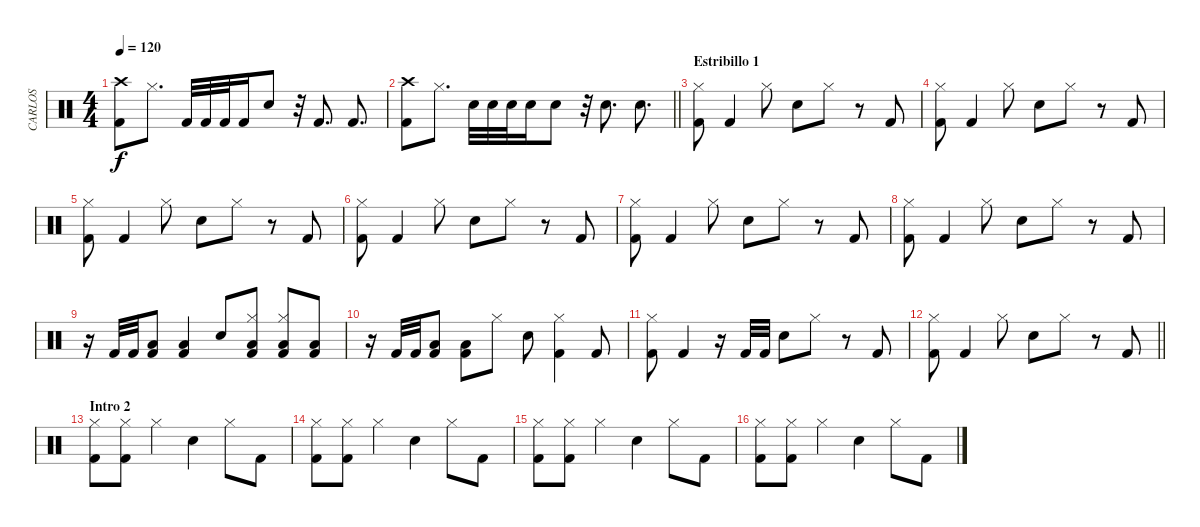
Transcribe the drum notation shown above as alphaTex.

\track ("CARLOS" "CARLOS") {instrument percussion}
\staff {score}
\articulation defaults
\ts (4 4)
\tempo 120
\clef neutral
\ks c
("Kick (hit) 2" "Crash high (hit)").8{dy f} "Hi-Hat (closed)".8{d} "Kick (hit) 2".32 "Kick (hit) 2".32 "Kick (hit) 2".32 "Kick (hit) 2".16 "Electric Snare (hit)".8 r.32 "Kick (hit) 2".8{d} "Kick (hit) 2".8{d} |
\barLineRight lightlight
("Kick (hit) 2" "Crash high (hit)").8 "Hi-Hat (closed)".8{d} "Electric Snare (hit)".32 "Electric Snare (hit)".32 "Electric Snare (hit)".32 "Electric Snare (hit)".16 "Electric Snare (hit)".8 r.32 "Electric Snare (hit)".8{d} "Electric Snare (hit)".8{d} |
\section ("" "Estribillo 1")
("Hi-Hat (closed)" "Kick (hit) 2").8 "Kick (hit) 2".4 "Hi-Hat (closed)".8 "Electric Snare (hit)".8 "Hi-Hat (closed)".8 r.8 "Kick (hit) 2".8 |
("Hi-Hat (closed)" "Kick (hit) 2").8 "Kick (hit) 2".4 "Hi-Hat (closed)".8 "Electric Snare (hit)".8 "Hi-Hat (closed)".8 r.8 "Kick (hit) 2".8 |
("Hi-Hat (closed)" "Kick (hit) 2").8 "Kick (hit) 2".4 "Hi-Hat (closed)".8 "Electric Snare (hit)".8 "Hi-Hat (closed)".8 r.8 "Kick (hit) 2".8 |
("Hi-Hat (closed)" "Kick (hit) 2").8 "Kick (hit) 2".4 "Hi-Hat (closed)".8 "Electric Snare (hit)".8 "Hi-Hat (closed)".8 r.8 "Kick (hit) 2".8 |
("Hi-Hat (closed)" "Kick (hit) 2").8 "Kick (hit) 2".4 "Hi-Hat (closed)".8 "Electric Snare (hit)".8 "Hi-Hat (closed)".8 r.8 "Kick (hit) 2".8 |
("Hi-Hat (closed)" "Kick (hit) 2").8 "Kick (hit) 2".4 "Hi-Hat (closed)".8 "Electric Snare (hit)".8 "Hi-Hat (closed)".8 r.8 "Kick (hit) 2".8 |
r.16 "Kick (hit) 2".32 "Kick (hit) 2".32 ("Low Tom (hit)" "Kick (hit) 2").8 ("Low Tom (hit)" "Kick (hit) 2").4 "Electric Snare (hit)".8 ("Hi-Hat (closed)" "Low Tom (hit)" "Kick (hit) 2").8 ("Hi-Hat (closed)" "Low Tom (hit)" "Kick (hit) 2").8 ("Low Tom (hit)" "Kick (hit) 2").8 |
r.16 "Kick (hit) 2".32 "Kick (hit) 2".32 ("Low Tom (hit)" "Kick (hit) 2").8 ("Kick (hit) 2" "Low Tom (hit)").8 "Hi-Hat (closed)".8 "Electric Snare (hit)".8 ("Hi-Hat (closed)" "Kick (hit) 2").4 "Kick (hit) 2".8 |
("Hi-Hat (closed)" "Kick (hit) 2").8 "Kick (hit) 2".4 r.16 "Kick (hit) 2".32 "Kick (hit) 2".32 "Electric Snare (hit)".8 "Hi-Hat (closed)".8 r.8 "Kick (hit) 2".8 |
\barLineRight lightlight
("Hi-Hat (closed)" "Kick (hit) 2").8 "Kick (hit) 2".4 "Hi-Hat (closed)".8 "Electric Snare (hit)".8 "Hi-Hat (closed)".8 r.8 "Kick (hit) 2".8 |
\section ("" "Intro 2")
("Kick (hit) 2" "Hi-Hat (closed)").8 ("Kick (hit) 2" "Hi-Hat (closed)").8 "Hi-Hat (closed)".4 "Electric Snare (hit)".4 "Hi-Hat (closed)".8 "Kick (hit) 2".8 |
("Kick (hit) 2" "Hi-Hat (closed)").8 ("Kick (hit) 2" "Hi-Hat (closed)").8 "Hi-Hat (closed)".4 "Electric Snare (hit)".4 "Hi-Hat (closed)".8 "Kick (hit) 2".8 |
("Kick (hit) 2" "Hi-Hat (closed)").8 ("Kick (hit) 2" "Hi-Hat (closed)").8 "Hi-Hat (closed)".4 "Electric Snare (hit)".4 "Hi-Hat (closed)".8 "Kick (hit) 2".8 |
("Kick (hit) 2" "Hi-Hat (closed)").8 ("Kick (hit) 2" "Hi-Hat (closed)").8 "Hi-Hat (closed)".4 "Electric Snare (hit)".4 "Hi-Hat (closed)".8 "Kick (hit) 2".8
